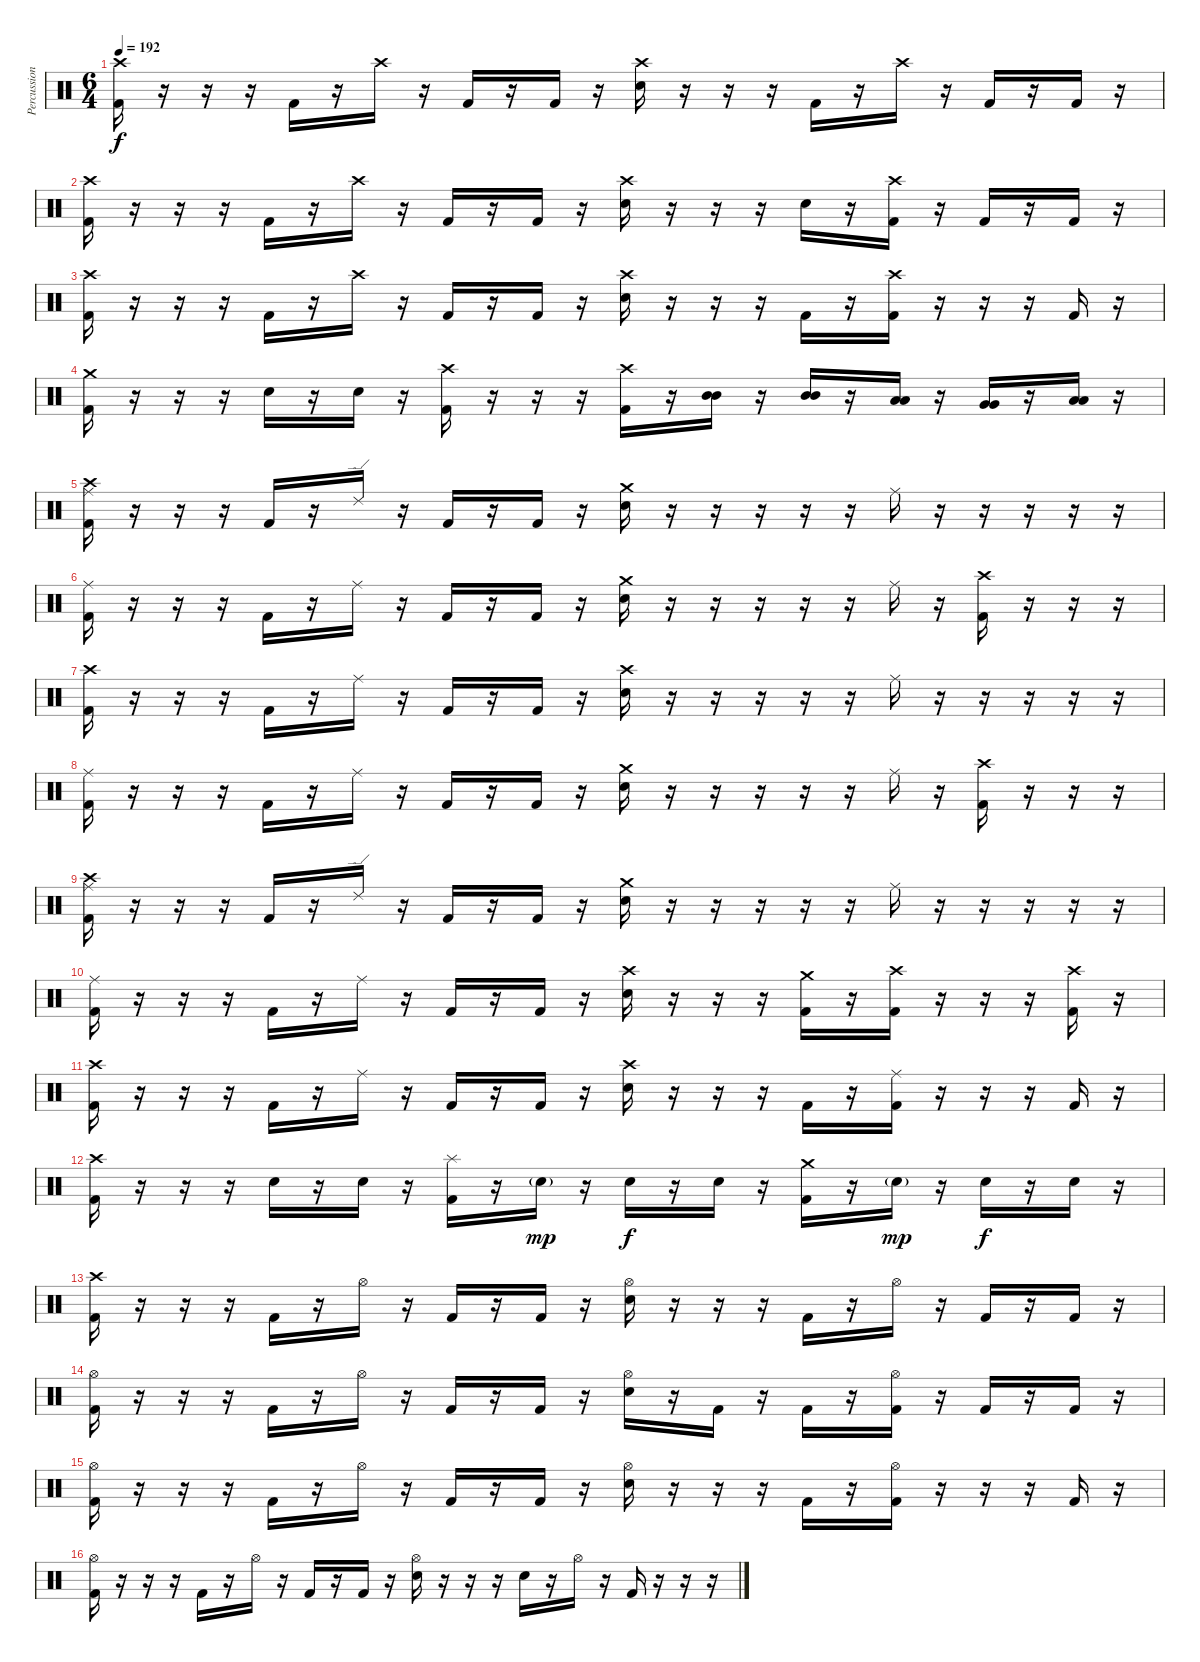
\track ("Percussion" "Percussion") {instrument percussion}
\staff {score}
\articulation defaults
\ts (6 4)
\tempo 192
\clef neutral
\ks c
("Crash high (hit)" "Kick (hit) 2").16{dy f} r.16 r.16 r.16 "Kick (hit) 2".16 r.16 "Crash high (hit)".16 r.16 "Kick (hit) 2".16 r.16 "Kick (hit) 2".16 r.16 ("Crash high (hit)" "Snare (hit) 2").16 r.16 r.16 r.16 "Kick (hit) 2".16 r.16 "Crash high (hit)".16 r.16 "Kick (hit) 2".16 r.16 "Kick (hit) 2".16 r.16 |
("Crash high (hit)" "Kick (hit) 2").16 r.16 r.16 r.16 "Kick (hit) 2".16 r.16 "Crash high (hit)".16 r.16 "Kick (hit) 2".16 r.16 "Kick (hit) 2".16 r.16 ("Crash high (hit)" "Snare (hit) 2").16 r.16 r.16 r.16 "Snare (hit) 2".16 r.16 ("Crash high (hit)" "Kick (hit) 2").16 r.16 "Kick (hit) 2".16 r.16 "Kick (hit) 2".16 r.16 |
("Crash high (hit)" "Kick (hit) 2").16 r.16 r.16 r.16 "Kick (hit) 2".16 r.16 "Crash high (hit)".16 r.16 "Kick (hit) 2".16 r.16 "Kick (hit) 2".16 r.16 ("Crash high (hit)" "Snare (hit) 2").16 r.16 r.16 r.16 "Kick (hit) 2".16 r.16 ("Crash high (hit)" "Kick (hit) 2").16 r.16 r.16 r.16 "Kick (hit) 2".16 r.16 |
("Crash medium (hit)" "Kick (hit) 2").16 r.16 r.16 r.16 "Snare (hit) 2".16 r.16 "Snare (hit) 2".16 r.16 ("Crash high (hit)" "Kick (hit) 2").16 r.16 r.16 r.16 ("Crash high (hit)" "Kick (hit) 2").16 r.16 ("Mid Tom (hit)" "Mid Tom (hit)").16 r.16 ("Mid Tom (hit)" "Mid Tom (hit)").16 r.16 ("Low Tom (hit)" "Low Tom (hit)").16 r.16 ("Very Low Tom (hit)" "Very Low Tom (hit)").16 r.16 ("Low Floor Tom (hit)" "Low Floor Tom (hit)").16 r.16 |
("Crash high (hit)" "Ride (middle)" "Kick (hit) 2").16 r.16 r.16 r.16 "Kick (hit) 2".16 r.16 "Ride (edge) 2".16 r.16 "Kick (hit) 2".16 r.16 "Kick (hit) 2".16 r.16 ("Crash medium (hit)" "Snare (hit) 2").16 r.16 r.16 r.16 r.16 r.16 "Ride (middle)".16 r.16 r.16 r.16 r.16 r.16 |
("Ride (middle)" "Kick (hit) 2").16 r.16 r.16 r.16 "Kick (hit) 2".16 r.16 "Ride (middle)".16 r.16 "Kick (hit) 2".16 r.16 "Kick (hit) 2".16 r.16 ("Crash medium (hit)" "Snare (hit) 2").16 r.16 r.16 r.16 r.16 r.16 "Ride (middle)".16 r.16 ("Crash high (hit)" "Kick (hit) 2").16 r.16 r.16 r.16 |
("Crash high (hit)" "Kick (hit) 2").16 r.16 r.16 r.16 "Kick (hit) 2".16 r.16 "Ride (middle)".16 r.16 "Kick (hit) 2".16 r.16 "Kick (hit) 2".16 r.16 ("Crash high (hit)" "Snare (hit) 2").16 r.16 r.16 r.16 r.16 r.16 "Ride (middle)".16 r.16 r.16 r.16 r.16 r.16 |
("Ride (middle)" "Kick (hit) 2").16 r.16 r.16 r.16 "Kick (hit) 2".16 r.16 "Ride (middle)".16 r.16 "Kick (hit) 2".16 r.16 "Kick (hit) 2".16 r.16 ("Crash medium (hit)" "Snare (hit) 2").16 r.16 r.16 r.16 r.16 r.16 "Ride (middle)".16 r.16 ("Crash high (hit)" "Kick (hit) 2").16 r.16 r.16 r.16 |
("Crash high (hit)" "Ride (middle)" "Kick (hit) 2").16 r.16 r.16 r.16 "Kick (hit) 2".16 r.16 "Ride (edge) 2".16 r.16 "Kick (hit) 2".16 r.16 "Kick (hit) 2".16 r.16 ("Crash medium (hit)" "Snare (hit) 2").16 r.16 r.16 r.16 r.16 r.16 "Ride (middle)".16 r.16 r.16 r.16 r.16 r.16 |
("Ride (middle)" "Kick (hit) 2").16 r.16 r.16 r.16 "Kick (hit) 2".16 r.16 "Ride (middle)".16 r.16 "Kick (hit) 2".16 r.16 "Kick (hit) 2".16 r.16 ("Crash high (hit)" "Snare (hit) 2").16 r.16 r.16 r.16 ("Crash medium (hit)" "Kick (hit) 2").16 r.16 ("Crash high (hit)" "Kick (hit) 2").16 r.16 r.16 r.16 ("Crash high (hit)" "Kick (hit) 2").16 r.16 |
("Crash high (hit)" "Kick (hit) 2").16 r.16 r.16 r.16 "Kick (hit) 2".16 r.16 "Ride (middle)".16 r.16 "Kick (hit) 2".16 r.16 "Kick (hit) 2".16 r.16 ("Crash high (hit)" "Snare (hit) 2").16 r.16 r.16 r.16 "Kick (hit) 2".16 r.16 ("Ride (middle)" "Kick (hit) 2").16 r.16 r.16 r.16 "Kick (hit) 2".16 r.16 |
("Crash high (hit)" "Kick (hit) 2").16 r.16 r.16 r.16 "Snare (hit) 2".16 r.16 "Snare (hit) 2".16 r.16 ("Splash (hit)" "Kick (hit) 2").16 r.16 "Snare (hit) 2"{g}.16{dy mp} r.16 "Snare (hit) 2".16{dy f} r.16 "Snare (hit) 2".16 r.16 ("Crash medium (hit)" "Kick (hit) 2").16 r.16 "Snare (hit) 2"{g}.16{dy mp} r.16 "Snare (hit) 2".16{dy f} r.16 "Snare (hit) 2".16 r.16 |
("Crash high (hit)" "Kick (hit) 2").16 r.16 r.16 r.16 "Kick (hit) 2".16 r.16 "Hi-Hat (open)".16 r.16 "Kick (hit) 2".16 r.16 "Kick (hit) 2".16 r.16 ("Hi-Hat (open)" "Snare (hit) 2").16 r.16 r.16 r.16 "Kick (hit) 2".16 r.16 "Hi-Hat (open)".16 r.16 "Kick (hit) 2".16 r.16 "Kick (hit) 2".16 r.16 |
("Hi-Hat (open)" "Kick (hit) 2").16 r.16 r.16 r.16 "Kick (hit) 2".16 r.16 "Hi-Hat (open)".16 r.16 "Kick (hit) 2".16 r.16 "Kick (hit) 2".16 r.16 ("Hi-Hat (open)" "Snare (hit) 2").16 r.16 "Kick (hit) 2".16 r.16 "Kick (hit) 2".16 r.16 ("Hi-Hat (open)" "Kick (hit) 2").16 r.16 "Kick (hit) 2".16 r.16 "Kick (hit) 2".16 r.16 |
("Hi-Hat (open)" "Kick (hit) 2").16 r.16 r.16 r.16 "Kick (hit) 2".16 r.16 "Hi-Hat (open)".16 r.16 "Kick (hit) 2".16 r.16 "Kick (hit) 2".16 r.16 ("Hi-Hat (open)" "Snare (hit) 2").16 r.16 r.16 r.16 "Kick (hit) 2".16 r.16 ("Hi-Hat (open)" "Kick (hit) 2").16 r.16 r.16 r.16 "Kick (hit) 2".16 r.16 |
("Hi-Hat (open)" "Kick (hit) 2").16 r.16 r.16 r.16 "Kick (hit) 2".16 r.16 "Hi-Hat (open)".16 r.16 "Kick (hit) 2".16 r.16 "Kick (hit) 2".16 r.16 ("Hi-Hat (open)" "Snare (hit) 2").16 r.16 r.16 r.16 "Snare (hit) 2".16 r.16 "Hi-Hat (open)".16 r.16 "Kick (hit) 2".16 r.16 r.16 r.16
